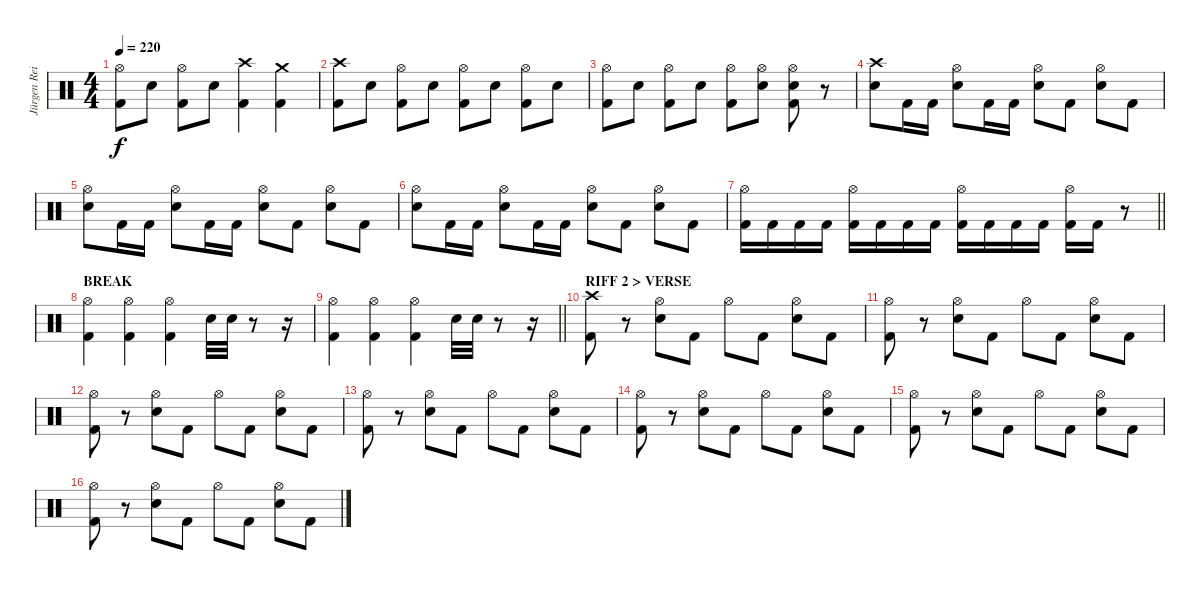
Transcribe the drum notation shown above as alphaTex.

\track ("Jürgen Reil" "Jürgen Rei") {instrument percussion}
\staff {score}
\articulation defaults
\ts (4 4)
\tempo 220
\clef neutral
\ks c
("Hi-Hat (open)" "Kick (hit) 2").8{dy f} "Electric Snare (hit)".8 ("Hi-Hat (open)" "Kick (hit) 2").8 "Electric Snare (hit)".8 ("Crash high (hit)" "Kick (hit) 2").4 ("Crash medium (hit)" "Kick (hit) 2").4 |
("Crash high (hit)" "Kick (hit) 2").8 "Electric Snare (hit)".8 ("Hi-Hat (open)" "Kick (hit) 2").8 "Electric Snare (hit)".8 ("Hi-Hat (open)" "Kick (hit) 2").8 "Electric Snare (hit)".8 ("Hi-Hat (open)" "Kick (hit) 2").8 "Electric Snare (hit)".8 |
("Hi-Hat (open)" "Kick (hit) 2").8 "Electric Snare (hit)".8 ("Hi-Hat (open)" "Kick (hit) 2").8 "Electric Snare (hit)".8 ("Hi-Hat (open)" "Kick (hit) 2").8 ("Hi-Hat (open)" "Electric Snare (hit)").8 ("Hi-Hat (open)" "Electric Snare (hit)" "Kick (hit) 2").8 r.8 |
("Crash high (hit)" "Electric Snare (hit)").8 "Kick (hit) 2".16 "Kick (hit) 2".16 ("Hi-Hat (open)" "Electric Snare (hit)").8 "Kick (hit) 2".16 "Kick (hit) 2".16 ("Hi-Hat (open)" "Electric Snare (hit)").8 "Kick (hit) 2".8 ("Hi-Hat (open)" "Electric Snare (hit)").8 "Kick (hit) 2".8 |
("Hi-Hat (open)" "Electric Snare (hit)").8 "Kick (hit) 2".16 "Kick (hit) 2".16 ("Hi-Hat (open)" "Electric Snare (hit)").8 "Kick (hit) 2".16 "Kick (hit) 2".16 ("Hi-Hat (open)" "Electric Snare (hit)").8 "Kick (hit) 2".8 ("Hi-Hat (open)" "Electric Snare (hit)").8 "Kick (hit) 2".8 |
("Hi-Hat (open)" "Electric Snare (hit)").8 "Kick (hit) 2".16 "Kick (hit) 2".16 ("Hi-Hat (open)" "Electric Snare (hit)").8 "Kick (hit) 2".16 "Kick (hit) 2".16 ("Hi-Hat (open)" "Electric Snare (hit)").8 "Kick (hit) 2".8 ("Hi-Hat (open)" "Electric Snare (hit)").8 "Kick (hit) 2".8 |
\barLineRight lightlight
("Hi-Hat (open)" "Kick (hit) 2").16 "Kick (hit) 2".16 "Kick (hit) 2".16 "Kick (hit) 2".16 ("Hi-Hat (open)" "Kick (hit) 2").16 "Kick (hit) 2".16 "Kick (hit) 2".16 "Kick (hit) 2".16 ("Hi-Hat (open)" "Kick (hit) 2").16 "Kick (hit) 2".16 "Kick (hit) 2".16 "Kick (hit) 2".16 ("Hi-Hat (open)" "Kick (hit) 2").16 "Kick (hit) 2".16 r.8 |
\section ("" "BREAK")
("Hi-Hat (open)" "Kick (hit) 2").4 ("Hi-Hat (open)" "Kick (hit) 2").4 ("Hi-Hat (open)" "Kick (hit) 2").4 "Electric Snare (hit)".32 "Electric Snare (hit)".32 r.8 r.16 |
\barLineRight lightlight
("Hi-Hat (open)" "Kick (hit) 2").4 ("Hi-Hat (open)" "Kick (hit) 2").4 ("Hi-Hat (open)" "Kick (hit) 2").4 "Electric Snare (hit)".32 "Electric Snare (hit)".32 r.8 r.16 |
\section ("" "RIFF 2 > VERSE")
("Crash high (hit)" "Kick (hit) 2").8 r.8 ("Hi-Hat (open)" "Electric Snare (hit)").8 "Kick (hit) 2".8 "Hi-Hat (open)".8 "Kick (hit) 2".8 ("Hi-Hat (open)" "Electric Snare (hit)").8 "Kick (hit) 2".8 |
("Hi-Hat (open)" "Kick (hit) 2").8 r.8 ("Hi-Hat (open)" "Electric Snare (hit)").8 "Kick (hit) 2".8 "Hi-Hat (open)".8 "Kick (hit) 2".8 ("Hi-Hat (open)" "Electric Snare (hit)").8 "Kick (hit) 2".8 |
("Hi-Hat (open)" "Kick (hit) 2").8 r.8 ("Hi-Hat (open)" "Electric Snare (hit)").8 "Kick (hit) 2".8 "Hi-Hat (open)".8 "Kick (hit) 2".8 ("Hi-Hat (open)" "Electric Snare (hit)").8 "Kick (hit) 2".8 |
("Hi-Hat (open)" "Kick (hit) 2").8 r.8 ("Hi-Hat (open)" "Electric Snare (hit)").8 "Kick (hit) 2".8 "Hi-Hat (open)".8 "Kick (hit) 2".8 ("Hi-Hat (open)" "Electric Snare (hit)").8 "Kick (hit) 2".8 |
("Hi-Hat (open)" "Kick (hit) 2").8 r.8 ("Hi-Hat (open)" "Electric Snare (hit)").8 "Kick (hit) 2".8 "Hi-Hat (open)".8 "Kick (hit) 2".8 ("Hi-Hat (open)" "Electric Snare (hit)").8 "Kick (hit) 2".8 |
("Hi-Hat (open)" "Kick (hit) 2").8 r.8 ("Hi-Hat (open)" "Electric Snare (hit)").8 "Kick (hit) 2".8 "Hi-Hat (open)".8 "Kick (hit) 2".8 ("Hi-Hat (open)" "Electric Snare (hit)").8 "Kick (hit) 2".8 |
("Hi-Hat (open)" "Kick (hit) 2").8 r.8 ("Hi-Hat (open)" "Electric Snare (hit)").8 "Kick (hit) 2".8 "Hi-Hat (open)".8 "Kick (hit) 2".8 ("Hi-Hat (open)" "Electric Snare (hit)").8 "Kick (hit) 2".8
